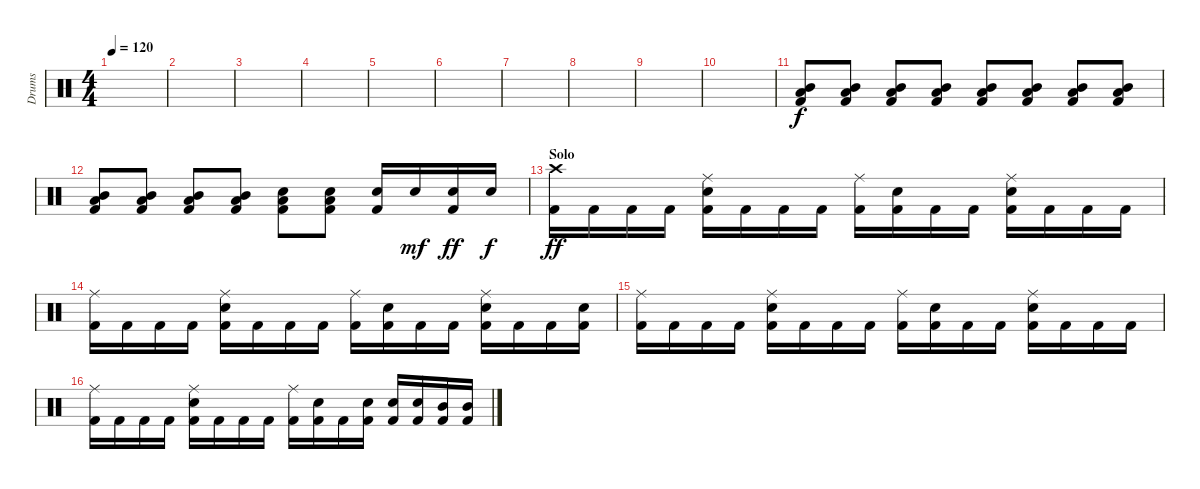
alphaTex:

\track ("Drums" "Drums") {instrument percussion}
\staff {score}
\articulation defaults
\ts (4 4)
\tempo 120
\clef neutral
\ks c
|
|
|
|
|
|
|
|
|
|
("Mid Tom (hit)" "Low Tom (hit)" "Kick (hit) 2").8 ("Mid Tom (hit)" "Low Tom (hit)" "Kick (hit) 2").8 ("Mid Tom (hit)" "Low Tom (hit)" "Kick (hit) 2").8 ("Mid Tom (hit)" "Low Tom (hit)" "Kick (hit) 2").8 ("Mid Tom (hit)" "Low Tom (hit)" "Kick (hit) 2").8 ("Mid Tom (hit)" "Low Tom (hit)" "Kick (hit) 2").8 ("Mid Tom (hit)" "Low Tom (hit)" "Kick (hit) 2").8 ("Mid Tom (hit)" "Low Tom (hit)" "Kick (hit) 2").8 |
("Mid Tom (hit)" "Low Tom (hit)" "Kick (hit) 2").8 ("Mid Tom (hit)" "Low Tom (hit)" "Kick (hit) 2").8 ("Mid Tom (hit)" "Low Tom (hit)" "Kick (hit) 2").8 ("Mid Tom (hit)" "Low Tom (hit)" "Kick (hit) 2").8 ("Electric Snare (hit)" "Low Tom (hit)" "Kick (hit) 2").8 ("Electric Snare (hit)" "Low Tom (hit)" "Kick (hit) 2").8 ("Electric Snare (hit)" "Kick (hit) 2").16 "Electric Snare (hit)".16{dy mf} ("Electric Snare (hit)" "Kick (hit) 2").16{dy ff} "Electric Snare (hit)".16{dy f} |
\section ("" "Solo")
("Crash high (hit)" "Kick (hit) 2").16{dy ff} "Kick (hit) 2".16 "Kick (hit) 2".16 "Kick (hit) 2".16 ("Ride (middle)" "Electric Snare (hit)" "Kick (hit) 2").16 "Kick (hit) 2".16 "Kick (hit) 2".16 "Kick (hit) 2".16 ("Ride (middle)" "Kick (hit) 2").16 ("Electric Snare (hit)" "Kick (hit) 2").16 "Kick (hit) 2".16 "Kick (hit) 2".16 ("Ride (middle)" "Electric Snare (hit)" "Kick (hit) 2").16 "Kick (hit) 2".16 "Kick (hit) 2".16 "Kick (hit) 2".16 |
("Ride (middle)" "Kick (hit) 2").16 "Kick (hit) 2".16 "Kick (hit) 2".16 "Kick (hit) 2".16 ("Ride (middle)" "Electric Snare (hit)" "Kick (hit) 2").16 "Kick (hit) 2".16 "Kick (hit) 2".16 "Kick (hit) 2".16 ("Ride (middle)" "Kick (hit) 2").16 ("Electric Snare (hit)" "Kick (hit) 2").16 "Kick (hit) 2".16 "Kick (hit) 2".16 ("Ride (middle)" "Electric Snare (hit)" "Kick (hit) 2").16 "Kick (hit) 2".16 "Kick (hit) 2".16 ("Electric Snare (hit)" "Kick (hit) 2").16 |
("Ride (middle)" "Kick (hit) 2").16 "Kick (hit) 2".16 "Kick (hit) 2".16 "Kick (hit) 2".16 ("Ride (middle)" "Electric Snare (hit)" "Kick (hit) 2").16 "Kick (hit) 2".16 "Kick (hit) 2".16 "Kick (hit) 2".16 ("Ride (middle)" "Kick (hit) 2").16 ("Electric Snare (hit)" "Kick (hit) 2").16 "Kick (hit) 2".16 "Kick (hit) 2".16 ("Ride (middle)" "Electric Snare (hit)" "Kick (hit) 2").16 "Kick (hit) 2".16 "Kick (hit) 2".16 "Kick (hit) 2".16 |
("Ride (middle)" "Kick (hit) 2").16 "Kick (hit) 2".16 "Kick (hit) 2".16 "Kick (hit) 2".16 ("Ride (middle)" "Electric Snare (hit)" "Kick (hit) 2").16 "Kick (hit) 2".16 "Kick (hit) 2".16 "Kick (hit) 2".16 ("Ride (middle)" "Kick (hit) 2").16 ("Electric Snare (hit)" "Kick (hit) 2").16 "Kick (hit) 2".16 ("Electric Snare (hit)" "Kick (hit) 2").16 ("Electric Snare (hit)" "Kick (hit) 2").16 ("Electric Snare (hit)" "Kick (hit) 2").16 ("Mid Tom (hit)" "Kick (hit) 2").16 ("Mid Tom (hit)" "Kick (hit) 2").16
